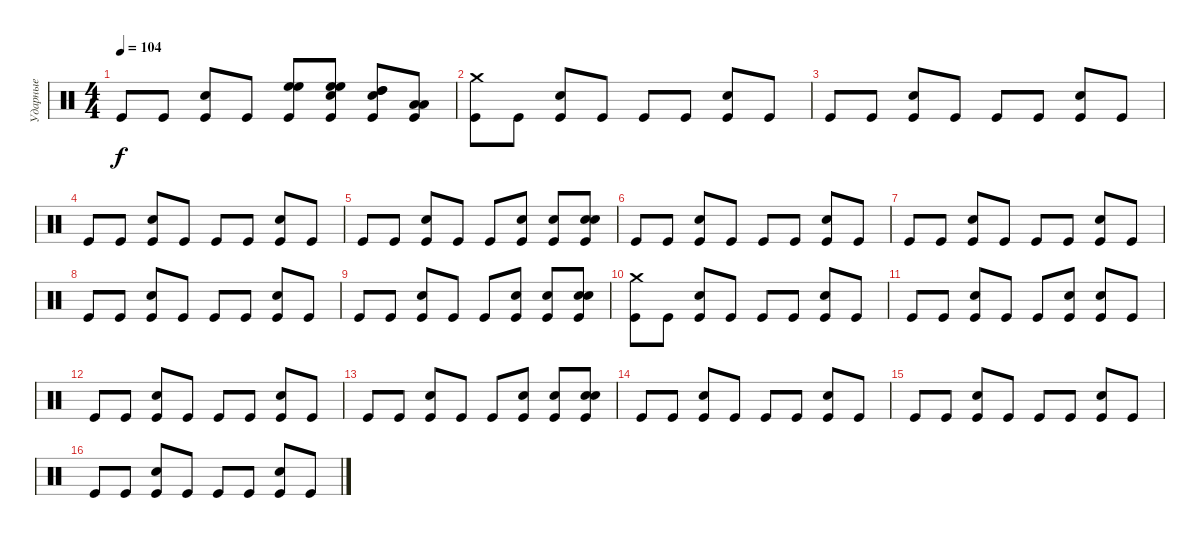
\track ("Ударные" "Ударные") {instrument percussion}
\staff {score}
\articulation defaults
\ts (4 4)
\tempo 104
\clef neutral
\ks c "Kick (hit)".8{dy f} "Kick (hit)".8
("Snare (hit) 2" "Kick (hit)").8 "Kick (hit)".8 ("High Floor Tom (hit)" "Kick (hit)" "High Floor Tom (hit)").8 ("High Floor Tom (hit)" "Snare (hit) 2" "Kick (hit)" "High Floor Tom (hit)").8 ("High Tom (hit)" "Snare (hit) 2" "Kick (hit)" "High Tom (hit)").8 ("Low Tom (hit)" "Kick (hit)" "Low Tom (hit)").8 |
("Crash medium (hit)" "Kick (hit)").8 "Kick (hit)".8 ("Snare (hit) 2" "Kick (hit)").8 "Kick (hit)".8 "Kick (hit)".8 "Kick (hit)".8 ("Snare (hit) 2" "Kick (hit)").8 "Kick (hit)".8 |
"Kick (hit)".8 "Kick (hit)".8 ("Snare (hit) 2" "Kick (hit)").8 "Kick (hit)".8 "Kick (hit)".8 "Kick (hit)".8 ("Snare (hit) 2" "Kick (hit)").8 "Kick (hit)".8 |
"Kick (hit)".8 "Kick (hit)".8 ("Snare (hit) 2" "Kick (hit)").8 "Kick (hit)".8 "Kick (hit)".8 "Kick (hit)".8 ("Snare (hit) 2" "Kick (hit)").8 "Kick (hit)".8 |
"Kick (hit)".8 "Kick (hit)".8 ("Snare (hit) 2" "Kick (hit)").8 "Kick (hit)".8 "Kick (hit)".8 ("Snare (hit) 2" "Kick (hit)").8 ("Snare (hit) 2" "Kick (hit)").8 ("Snare (hit) 2" "Kick (hit)" "Snare (hit) 2").8 |
"Kick (hit)".8 "Kick (hit)".8 ("Snare (hit) 2" "Kick (hit)").8 "Kick (hit)".8 "Kick (hit)".8 "Kick (hit)".8 ("Snare (hit) 2" "Kick (hit)").8 "Kick (hit)".8 |
"Kick (hit)".8 "Kick (hit)".8 ("Snare (hit) 2" "Kick (hit)").8 "Kick (hit)".8 "Kick (hit)".8 "Kick (hit)".8 ("Snare (hit) 2" "Kick (hit)").8 "Kick (hit)".8 |
"Kick (hit)".8 "Kick (hit)".8 ("Snare (hit) 2" "Kick (hit)").8 "Kick (hit)".8 "Kick (hit)".8 "Kick (hit)".8 ("Snare (hit) 2" "Kick (hit)").8 "Kick (hit)".8 |
"Kick (hit)".8 "Kick (hit)".8 ("Snare (hit) 2" "Kick (hit)").8 "Kick (hit)".8 "Kick (hit)".8 ("Snare (hit) 2" "Kick (hit)").8 ("Snare (hit) 2" "Kick (hit)").8 ("Snare (hit) 2" "Kick (hit)" "Snare (hit) 2").8 |
("Crash medium (hit)" "Kick (hit)").8 "Kick (hit)".8 ("Snare (hit) 2" "Kick (hit)").8 "Kick (hit)".8 "Kick (hit)".8 "Kick (hit)".8 ("Snare (hit) 2" "Kick (hit)").8 "Kick (hit)".8 |
"Kick (hit)".8 "Kick (hit)".8 ("Snare (hit) 2" "Kick (hit)").8 "Kick (hit)".8 "Kick (hit)".8 ("Snare (hit) 2" "Kick (hit)").8 ("Snare (hit) 2" "Kick (hit)").8 "Kick (hit)".8 |
"Kick (hit)".8 "Kick (hit)".8 ("Snare (hit) 2" "Kick (hit)").8 "Kick (hit)".8 "Kick (hit)".8 "Kick (hit)".8 ("Snare (hit) 2" "Kick (hit)").8 "Kick (hit)".8 |
"Kick (hit)".8 "Kick (hit)".8 ("Snare (hit) 2" "Kick (hit)").8 "Kick (hit)".8 "Kick (hit)".8 ("Snare (hit) 2" "Kick (hit)").8 ("Snare (hit) 2" "Kick (hit)").8 ("Kick (hit)" "Snare (hit) 2" "Snare (hit) 2").8 |
"Kick (hit)".8 "Kick (hit)".8 ("Snare (hit) 2" "Kick (hit)").8 "Kick (hit)".8 "Kick (hit)".8 "Kick (hit)".8 ("Snare (hit) 2" "Kick (hit)").8 "Kick (hit)".8 |
"Kick (hit)".8 "Kick (hit)".8 ("Snare (hit) 2" "Kick (hit)").8 "Kick (hit)".8 "Kick (hit)".8 "Kick (hit)".8 ("Snare (hit) 2" "Kick (hit)").8 "Kick (hit)".8 |
"Kick (hit)".8 "Kick (hit)".8 ("Snare (hit) 2" "Kick (hit)").8 "Kick (hit)".8 "Kick (hit)".8 "Kick (hit)".8 ("Snare (hit) 2" "Kick (hit)").8 "Kick (hit)".8
